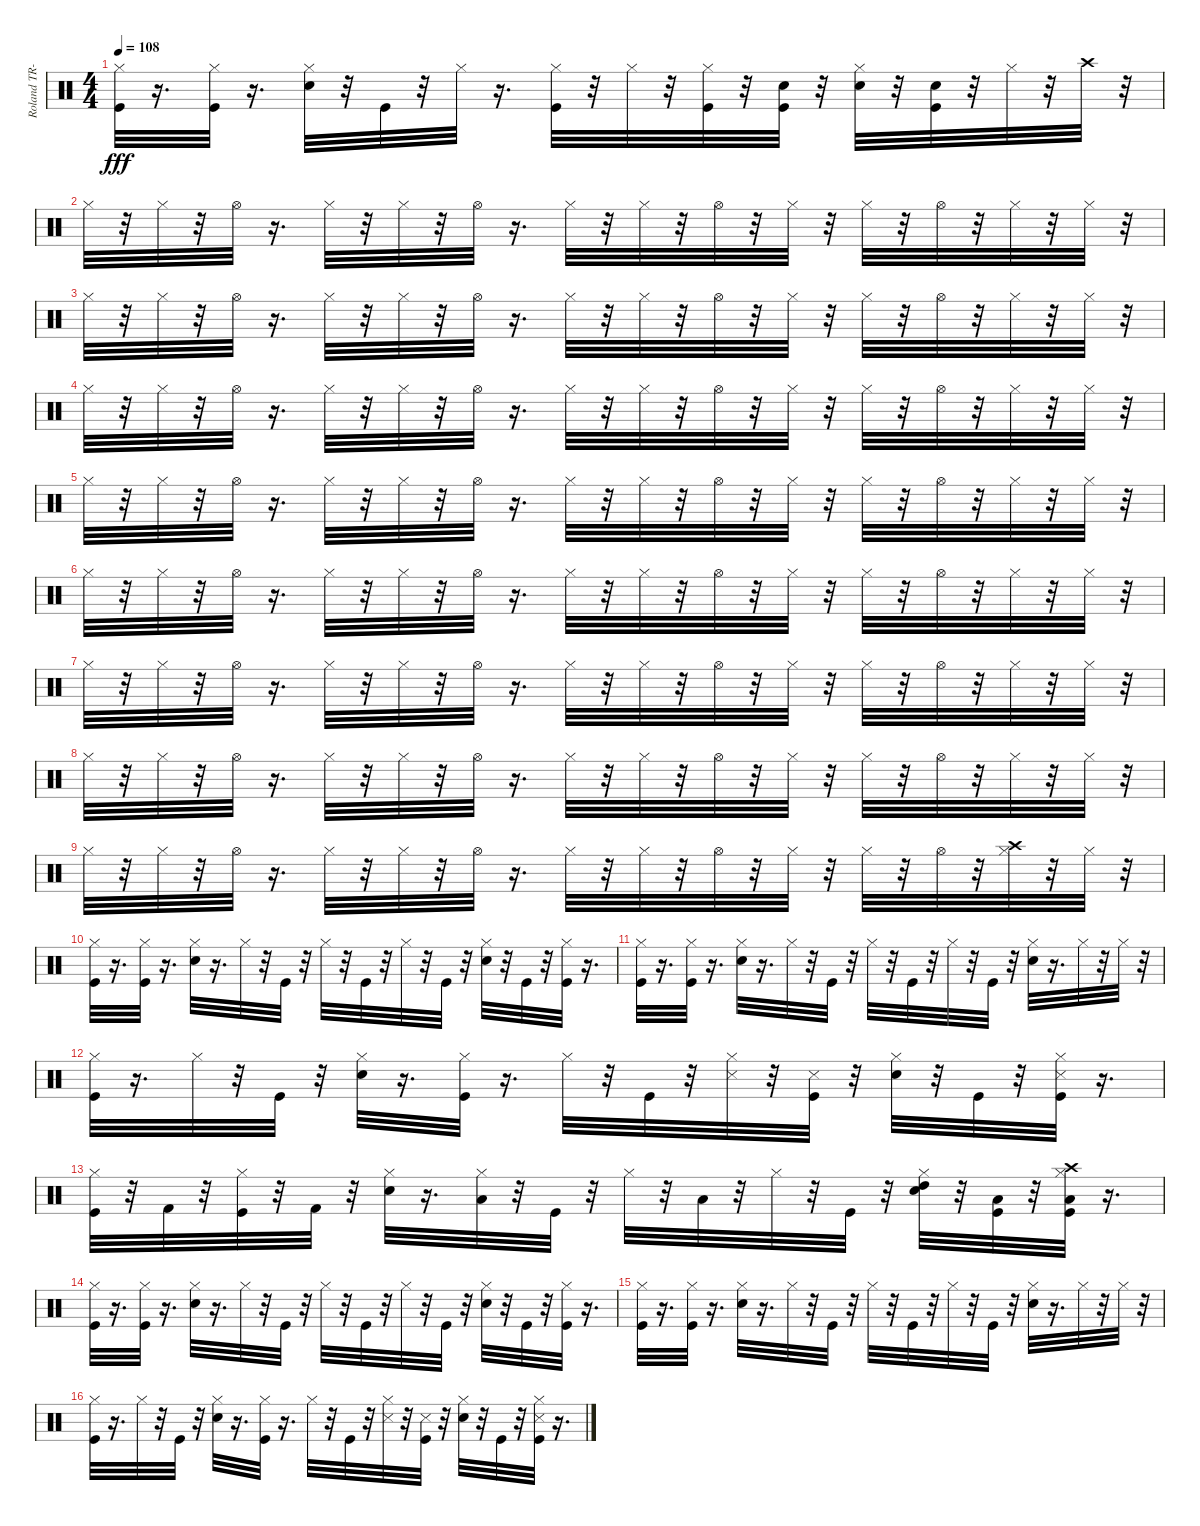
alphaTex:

\track ("Roland TR-707" "Roland TR-") {instrument percussion}
\staff {score}
\articulation defaults
\ts (4 4)
\tempo 108
\clef neutral
\ks c
("Kick (hit)" "Hi-Hat (closed)").32{dy fff} r.16{d} ("Kick (hit)" "Hi-Hat (closed)").32 r.16{d} ("Snare (hit) 2" "Hi-Hat (closed)").32 r.32 "Kick (hit)".32 r.32 "Hi-Hat (closed)".32 r.16{d} ("Kick (hit)" "Hi-Hat (closed)").32 r.32 "Hi-Hat (closed)".32 r.32 ("Kick (hit)" "Hi-Hat (closed)").32 r.32 ("Kick (hit)" "Hand Clap (hit)").32 r.32 ("Snare (hit) 2" "Hi-Hat (closed)").32 r.32 ("Kick (hit)" "Hand Clap (hit)").32 r.32 "Hi-Hat (closed)".32 r.32 "Crash high (hit)".32 r.32 |
"Hi-Hat (closed)".32 r.32 "Hi-Hat (closed)".32 r.32 "Hi-Hat (open)".32 r.16{d} "Hi-Hat (closed)".32 r.32 "Hi-Hat (closed)".32 r.32 "Hi-Hat (open)".32 r.16{d} "Hi-Hat (closed)".32 r.32 "Hi-Hat (closed)".32 r.32 "Hi-Hat (open)".32 r.32 "Hi-Hat (closed)".32 r.32 "Hi-Hat (closed)".32 r.32 "Hi-Hat (open)".32 r.32 "Hi-Hat (closed)".32 r.32 "Hi-Hat (closed)".32 r.32 |
"Hi-Hat (closed)".32 r.32 "Hi-Hat (closed)".32 r.32 "Hi-Hat (open)".32 r.16{d} "Hi-Hat (closed)".32 r.32 "Hi-Hat (closed)".32 r.32 "Hi-Hat (open)".32 r.16{d} "Hi-Hat (closed)".32 r.32 "Hi-Hat (closed)".32 r.32 "Hi-Hat (open)".32 r.32 "Hi-Hat (closed)".32 r.32 "Hi-Hat (closed)".32 r.32 "Hi-Hat (open)".32 r.32 "Hi-Hat (closed)".32 r.32 "Hi-Hat (closed)".32 r.32 |
"Hi-Hat (closed)".32 r.32 "Hi-Hat (closed)".32 r.32 "Hi-Hat (open)".32 r.16{d} "Hi-Hat (closed)".32 r.32 "Hi-Hat (closed)".32 r.32 "Hi-Hat (open)".32 r.16{d} "Hi-Hat (closed)".32 r.32 "Hi-Hat (closed)".32 r.32 "Hi-Hat (open)".32 r.32 "Hi-Hat (closed)".32 r.32 "Hi-Hat (closed)".32 r.32 "Hi-Hat (open)".32 r.32 "Hi-Hat (closed)".32 r.32 "Hi-Hat (closed)".32 r.32 |
"Hi-Hat (closed)".32 r.32 "Hi-Hat (closed)".32 r.32 "Hi-Hat (open)".32 r.16{d} "Hi-Hat (closed)".32 r.32 "Hi-Hat (closed)".32 r.32 "Hi-Hat (open)".32 r.16{d} "Hi-Hat (closed)".32 r.32 "Hi-Hat (closed)".32 r.32 "Hi-Hat (open)".32 r.32 "Hi-Hat (closed)".32 r.32 "Hi-Hat (closed)".32 r.32 "Hi-Hat (open)".32 r.32 "Hi-Hat (closed)".32 r.32 "Hi-Hat (closed)".32 r.32 |
"Hi-Hat (closed)".32 r.32 "Hi-Hat (closed)".32 r.32 "Hi-Hat (open)".32 r.16{d} "Hi-Hat (closed)".32 r.32 "Hi-Hat (closed)".32 r.32 "Hi-Hat (open)".32 r.16{d} "Hi-Hat (closed)".32 r.32 "Hi-Hat (closed)".32 r.32 "Hi-Hat (open)".32 r.32 "Hi-Hat (closed)".32 r.32 "Hi-Hat (closed)".32 r.32 "Hi-Hat (open)".32 r.32 "Hi-Hat (closed)".32 r.32 "Hi-Hat (closed)".32 r.32 |
"Hi-Hat (closed)".32 r.32 "Hi-Hat (closed)".32 r.32 "Hi-Hat (open)".32 r.16{d} "Hi-Hat (closed)".32 r.32 "Hi-Hat (closed)".32 r.32 "Hi-Hat (open)".32 r.16{d} "Hi-Hat (closed)".32 r.32 "Hi-Hat (closed)".32 r.32 "Hi-Hat (open)".32 r.32 "Hi-Hat (closed)".32 r.32 "Hi-Hat (closed)".32 r.32 "Hi-Hat (open)".32 r.32 "Hi-Hat (closed)".32 r.32 "Hi-Hat (closed)".32 r.32 |
"Hi-Hat (closed)".32 r.32 "Hi-Hat (closed)".32 r.32 "Hi-Hat (open)".32 r.16{d} "Hi-Hat (closed)".32 r.32 "Hi-Hat (closed)".32 r.32 "Hi-Hat (open)".32 r.16{d} "Hi-Hat (closed)".32 r.32 "Hi-Hat (closed)".32 r.32 "Hi-Hat (open)".32 r.32 "Hi-Hat (closed)".32 r.32 "Hi-Hat (closed)".32 r.32 "Hi-Hat (open)".32 r.32 "Hi-Hat (closed)".32 r.32 "Hi-Hat (closed)".32 r.32 |
"Hi-Hat (closed)".32 r.32 "Hi-Hat (closed)".32 r.32 "Hi-Hat (open)".32 r.16{d} "Hi-Hat (closed)".32 r.32 "Hi-Hat (closed)".32 r.32 "Hi-Hat (open)".32 r.16{d} "Hi-Hat (closed)".32 r.32 "Hi-Hat (closed)".32 r.32 "Hi-Hat (open)".32 r.32 "Hi-Hat (closed)".32 r.32 "Hi-Hat (closed)".32 r.32 "Hi-Hat (open)".32 r.32 ("Hi-Hat (closed)" "Crash high (hit)").32 r.32 "Hi-Hat (closed)".32 r.32 |
("Kick (hit)" "Hi-Hat (closed)").32 r.16{d} ("Kick (hit)" "Hi-Hat (closed)").32 r.16{d} ("Snare (hit) 2" "Hi-Hat (closed)").32 r.16{d} "Hi-Hat (closed)".32 r.32 "Kick (hit)".32 r.32 "Hi-Hat (closed)".32 r.32 "Kick (hit)".32 r.32 "Hi-Hat (closed)".32 r.32 "Kick (hit)".32 r.32 ("Snare (hit) 2" "Hi-Hat (closed)").32 r.32 "Kick (hit)".32 r.32 ("Kick (hit)" "Hi-Hat (closed)").32 r.16{d} |
("Kick (hit)" "Hi-Hat (closed)").32 r.16{d} ("Kick (hit)" "Hi-Hat (closed)").32 r.16{d} ("Snare (hit) 2" "Hi-Hat (closed)").32 r.16{d} "Hi-Hat (closed)".32 r.32 "Kick (hit)".32 r.32 "Hi-Hat (closed)".32 r.32 "Kick (hit)".32 r.32 "Hi-Hat (closed)".32 r.32 "Kick (hit)".32 r.32 ("Snare (hit) 2" "Hi-Hat (closed)").32 r.16{d} "Hi-Hat (closed)".32 r.32 "Hi-Hat (closed)".32 r.32 |
("Kick (hit)" "Hi-Hat (closed)").32 r.16{d} "Hi-Hat (closed)".32 r.32 "Kick (hit)".32 r.32 ("Snare (hit) 2" "Hi-Hat (closed)").32 r.16{d} ("Kick (hit)" "Hi-Hat (closed)").32 r.16{d} "Hi-Hat (closed)".32 r.32 "Kick (hit)".32 r.32 ("Hi-Hat (closed)" "Snare (side stick) 3").32 r.32 ("Kick (hit)" "Snare (side stick) 3").32 r.32 ("Snare (hit) 2" "Hi-Hat (closed)").32 r.32 "Kick (hit)".32 r.32 ("Kick (hit)" "Hi-Hat (closed)" "Snare (side stick) 3").32 r.16{d} |
("Kick (hit)" "Hi-Hat (closed)").32 r.32 "Kick (hit) 2".32 r.32 ("Kick (hit)" "Hi-Hat (closed)").32 r.32 "Kick (hit) 2".32 r.32 ("Snare (hit) 2" "Hi-Hat (closed)").32 r.16{d} ("Low Tom (hit)" "Hi-Hat (closed)").32 r.32 "Kick (hit)".32 r.32 "Hi-Hat (closed)".32 r.32 "Low Floor Tom (hit)".32 r.32 "Hi-Hat (closed)".32 r.32 "Kick (hit)".32 r.32 ("Snare (hit) 2" "High Tom (hit)" "Hi-Hat (closed)").32 r.32 ("Kick (hit)" "Low Floor Tom (hit)").32 r.32 ("Kick (hit)" "Low Tom (hit)" "Hi-Hat (closed)" "Crash high (hit)").32 r.16{d} |
("Kick (hit)" "Hi-Hat (closed)").32 r.16{d} ("Kick (hit)" "Hi-Hat (closed)").32 r.16{d} ("Snare (hit) 2" "Hi-Hat (closed)").32 r.16{d} "Hi-Hat (closed)".32 r.32 "Kick (hit)".32 r.32 "Hi-Hat (closed)".32 r.32 "Kick (hit)".32 r.32 "Hi-Hat (closed)".32 r.32 "Kick (hit)".32 r.32 ("Snare (hit) 2" "Hi-Hat (closed)").32 r.32 "Kick (hit)".32 r.32 ("Kick (hit)" "Hi-Hat (closed)").32 r.16{d} |
("Kick (hit)" "Hi-Hat (closed)").32 r.16{d} ("Kick (hit)" "Hi-Hat (closed)").32 r.16{d} ("Snare (hit) 2" "Hi-Hat (closed)").32 r.16{d} "Hi-Hat (closed)".32 r.32 "Kick (hit)".32 r.32 "Hi-Hat (closed)".32 r.32 "Kick (hit)".32 r.32 "Hi-Hat (closed)".32 r.32 "Kick (hit)".32 r.32 ("Snare (hit) 2" "Hi-Hat (closed)").32 r.16{d} "Hi-Hat (closed)".32 r.32 "Hi-Hat (closed)".32 r.32 |
("Kick (hit)" "Hi-Hat (closed)").32 r.16{d} "Hi-Hat (closed)".32 r.32 "Kick (hit)".32 r.32 ("Snare (hit) 2" "Hi-Hat (closed)").32 r.16{d} ("Kick (hit)" "Hi-Hat (closed)").32 r.16{d} "Hi-Hat (closed)".32 r.32 "Kick (hit)".32 r.32 ("Hi-Hat (closed)" "Snare (side stick) 3").32 r.32 ("Kick (hit)" "Snare (side stick) 3").32 r.32 ("Snare (hit) 2" "Hi-Hat (closed)").32 r.32 "Kick (hit)".32 r.32 ("Kick (hit)" "Hi-Hat (closed)" "Snare (side stick) 3").32 r.16{d}
